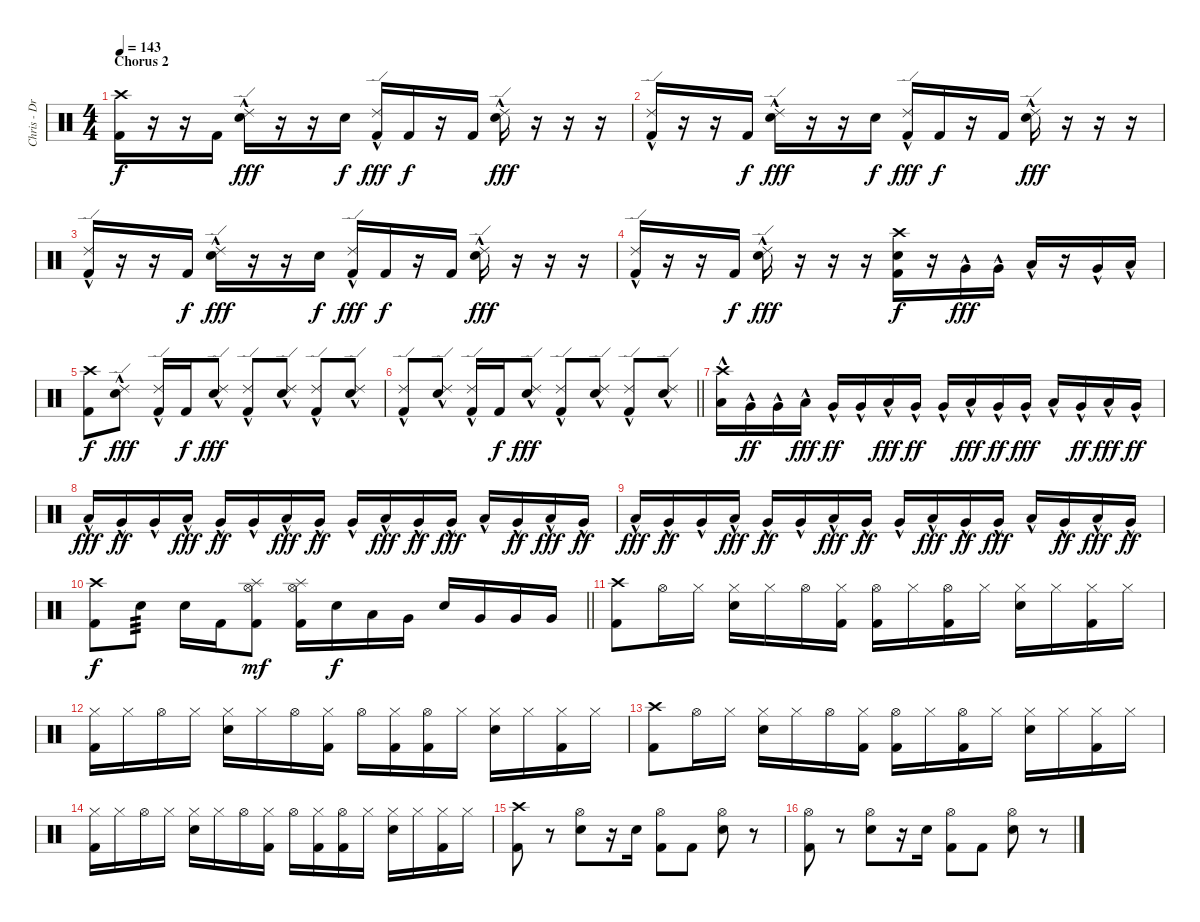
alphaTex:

\track ("Chris - Drums" "Chris - Dr") {instrument percussion}
\staff {score}
\articulation defaults
\ts (4 4)
\section ("" "Chorus 2")
\tempo 143
\clef neutral
\ks c
("Crash high (hit)" "Kick (hit) 2").16{dy f} r.16 r.16 "Kick (hit) 2".16 ("Ride (edge) 2"{hac} "Electric Snare (hit)").16{dy fff} r.16 r.16 "Electric Snare (hit)".16{dy f} ("Ride (edge) 2"{hac} "Kick (hit) 2").16{dy fff} "Kick (hit) 2".16{dy f} r.16 "Kick (hit) 2".16 ("Ride (edge) 2"{hac} "Electric Snare (hit)").16{dy fff} r.16 r.16 r.16 |
("Ride (edge) 2"{hac} "Kick (hit) 2").16 r.16 r.16 "Kick (hit) 2".16{dy f} ("Ride (edge) 2"{hac} "Electric Snare (hit)").16{dy fff} r.16 r.16 "Electric Snare (hit)".16{dy f} ("Ride (edge) 2"{hac} "Kick (hit) 2").16{dy fff} "Kick (hit) 2".16{dy f} r.16 "Kick (hit) 2".16 ("Ride (edge) 2"{hac} "Electric Snare (hit)").16{dy fff} r.16 r.16 r.16 |
("Ride (edge) 2"{hac} "Kick (hit) 2").16 r.16 r.16 "Kick (hit) 2".16{dy f} ("Ride (edge) 2"{hac} "Electric Snare (hit)").16{dy fff} r.16 r.16 "Electric Snare (hit)".16{dy f} ("Ride (edge) 2"{hac} "Kick (hit) 2").16{dy fff} "Kick (hit) 2".16{dy f} r.16 "Kick (hit) 2".16 ("Ride (edge) 2"{hac} "Electric Snare (hit)").16{dy fff} r.16 r.16 r.16 |
("Ride (edge) 2"{hac} "Kick (hit) 2").16 r.16 r.16 "Kick (hit) 2".16{dy f} ("Ride (edge) 2"{hac} "Electric Snare (hit)").16{dy fff} r.16 r.16 r.16 ("Crash high (hit)" "Electric Snare (hit)" "Kick (hit) 2").16{dy f} r.16 "Very Low Tom (hit)"{hac}.16{dy fff} "Very Low Tom (hit)"{hac}.16 "Low Tom (hit)"{hac}.16 r.16 "Very Low Tom (hit)"{hac}.16 "Low Floor Tom (hit)"{hac}.16 |
("Crash high (hit)" "Kick (hit) 2").8{dy f} ("Ride (edge) 2"{hac} "Electric Snare (hit)").8{dy fff} ("Ride (edge) 2"{hac} "Kick (hit) 2").16 "Kick (hit) 2".16{dy f} ("Ride (edge) 2"{hac} "Electric Snare (hit)").8{dy fff} ("Ride (edge) 2"{hac} "Kick (hit) 2").8 ("Ride (edge) 2"{hac} "Electric Snare (hit)").8 ("Ride (edge) 2"{hac} "Kick (hit) 2").8 ("Ride (edge) 2"{hac} "Electric Snare (hit)").8 |
\barLineRight lightlight
("Ride (edge) 2"{hac} "Kick (hit) 2").8 ("Ride (edge) 2"{hac} "Electric Snare (hit)").8 ("Ride (edge) 2"{hac} "Kick (hit) 2").16 "Kick (hit) 2".16{dy f} ("Ride (edge) 2"{hac} "Electric Snare (hit)").8{dy fff} ("Ride (edge) 2"{hac} "Kick (hit) 2").8 ("Ride (edge) 2"{hac} "Electric Snare (hit)").8 ("Ride (edge) 2"{hac} "Kick (hit) 2").8 ("Ride (edge) 2"{hac} "Electric Snare (hit)").8 |
("Crash high (hit)"{hac} "Low Tom (hit)"{hac}).16 "Very Low Tom (hit)"{hac}.16{dy ff} "Very Low Tom (hit)"{hac}.16 "Low Tom (hit)"{hac}.16{dy fff} "Very Low Tom (hit)"{hac}.16{dy ff} "Very Low Tom (hit)"{hac}.16 "Low Tom (hit)"{hac}.16{dy fff} "Very Low Tom (hit)"{hac}.16{dy ff} "Very Low Tom (hit)"{hac}.16 "Low Tom (hit)"{hac}.16{dy fff} "Very Low Tom (hit)"{hac}.16{dy ff} "Very Low Tom (hit)"{hac}.16{dy fff} "Low Tom (hit)"{hac}.16 "Very Low Tom (hit)"{hac}.16{dy ff} "Low Tom (hit)"{hac}.16{dy fff} "Very Low Tom (hit)"{hac}.16{dy ff} |
"Low Tom (hit)"{hac}.16{dy fff} "Very Low Tom (hit)"{hac}.16{dy ff} "Very Low Tom (hit)"{hac}.16 "Low Tom (hit)"{hac}.16{dy fff} "Very Low Tom (hit)"{hac}.16{dy ff} "Very Low Tom (hit)"{hac}.16 "Low Tom (hit)"{hac}.16{dy fff} "Very Low Tom (hit)"{hac}.16{dy ff} "Very Low Tom (hit)"{hac}.16 "Low Tom (hit)"{hac}.16{dy fff} "Very Low Tom (hit)"{hac}.16{dy ff} "Very Low Tom (hit)"{hac}.16{dy fff} "Low Tom (hit)"{hac}.16 "Very Low Tom (hit)"{hac}.16{dy ff} "Low Tom (hit)"{hac}.16{dy fff} "Very Low Tom (hit)"{hac}.16{dy ff} |
"Low Tom (hit)"{hac}.16{dy fff} "Very Low Tom (hit)"{hac}.16{dy ff} "Very Low Tom (hit)"{hac}.16 "Low Tom (hit)"{hac}.16{dy fff} "Very Low Tom (hit)"{hac}.16{dy ff} "Very Low Tom (hit)"{hac}.16 "Low Tom (hit)"{hac}.16{dy fff} "Very Low Tom (hit)"{hac}.16{dy ff} "Very Low Tom (hit)"{hac}.16 "Low Tom (hit)"{hac}.16{dy fff} "Very Low Tom (hit)"{hac}.16{dy ff} "Very Low Tom (hit)"{hac}.16{dy fff} "Low Tom (hit)"{hac}.16 "Very Low Tom (hit)"{hac}.16{dy ff} "Low Tom (hit)"{hac}.16{dy fff} "Very Low Tom (hit)"{hac}.16{dy ff} |
\barLineRight lightlight
("Crash high (hit)" "Kick (hit) 2").8{dy f} "Electric Snare (hit)".8{tp 3} "Electric Snare (hit)".16 "Kick (hit) 2".16 ("Hi-Hat (open)" "Splash (hit)" "Kick (hit) 2").8{dy mf} ("Hi-Hat (open)" "Splash (hit)" "Kick (hit) 2").16 "Electric Snare (hit)".16{dy f} "Low Tom (hit)".16 "Very Low Tom (hit)".16 "Electric Snare (hit)".16 "Very Low Tom (hit)".16 "Very Low Tom (hit)".16 "Very Low Tom (hit)".16 |
("Crash high (hit)" "Kick (hit) 2").8 "Hi-Hat (open)".16 "Hi-Hat (closed)".16 ("Hi-Hat (closed)" "Electric Snare (hit)").16 "Hi-Hat (closed)".16 "Hi-Hat (open)".16 ("Hi-Hat (closed)" "Kick (hit) 2").16 ("Hi-Hat (open)" "Kick (hit) 2").16 "Hi-Hat (closed)".16 ("Hi-Hat (open)" "Kick (hit) 2").16 "Hi-Hat (closed)".16 ("Hi-Hat (closed)" "Electric Snare (hit)").16 "Hi-Hat (closed)".16 ("Hi-Hat (closed)" "Kick (hit) 2").16 "Hi-Hat (closed)".16 |
("Hi-Hat (closed)" "Kick (hit) 2").16 "Hi-Hat (closed)".16 "Hi-Hat (open)".16 "Hi-Hat (closed)".16 ("Hi-Hat (closed)" "Electric Snare (hit)").16 "Hi-Hat (closed)".16 "Hi-Hat (open)".16 ("Hi-Hat (closed)" "Kick (hit) 2").16 "Hi-Hat (open)".16 ("Hi-Hat (closed)" "Kick (hit) 2").16 ("Hi-Hat (open)" "Kick (hit) 2").16 "Hi-Hat (closed)".16 ("Hi-Hat (closed)" "Electric Snare (hit)").16 "Hi-Hat (closed)".16 ("Hi-Hat (closed)" "Kick (hit) 2").16 "Hi-Hat (closed)".16 |
("Crash high (hit)" "Kick (hit) 2").8 "Hi-Hat (open)".16 "Hi-Hat (closed)".16 ("Hi-Hat (closed)" "Electric Snare (hit)").16 "Hi-Hat (closed)".16 "Hi-Hat (open)".16 ("Hi-Hat (closed)" "Kick (hit) 2").16 ("Hi-Hat (open)" "Kick (hit) 2").16 "Hi-Hat (closed)".16 ("Hi-Hat (open)" "Kick (hit) 2").16 "Hi-Hat (closed)".16 ("Hi-Hat (closed)" "Electric Snare (hit)").16 "Hi-Hat (closed)".16 ("Hi-Hat (closed)" "Kick (hit) 2").16 "Hi-Hat (closed)".16 |
("Hi-Hat (closed)" "Kick (hit) 2").16 "Hi-Hat (closed)".16 "Hi-Hat (open)".16 "Hi-Hat (closed)".16 ("Hi-Hat (closed)" "Electric Snare (hit)").16 "Hi-Hat (closed)".16 "Hi-Hat (open)".16 ("Hi-Hat (closed)" "Kick (hit) 2").16 "Hi-Hat (open)".16 ("Hi-Hat (closed)" "Kick (hit) 2").16 ("Hi-Hat (open)" "Kick (hit) 2").16 "Hi-Hat (closed)".16 ("Hi-Hat (closed)" "Electric Snare (hit)").16 "Hi-Hat (closed)".16 ("Hi-Hat (closed)" "Kick (hit) 2").16 "Hi-Hat (closed)".16 |
("Crash high (hit)" "Kick (hit) 2").8 r.8 ("Hi-Hat (open)" "Electric Snare (hit)").8 r.16 "Electric Snare (hit)".16 ("Hi-Hat (open)" "Kick (hit) 2").8 "Kick (hit) 2".8 ("Hi-Hat (open)" "Electric Snare (hit)").8 r.8 |
("Hi-Hat (open)" "Kick (hit) 2").8 r.8 ("Hi-Hat (open)" "Electric Snare (hit)").8 r.16 "Electric Snare (hit)".16 ("Hi-Hat (open)" "Kick (hit) 2").8 "Kick (hit) 2".8 ("Hi-Hat (open)" "Electric Snare (hit)").8 r.8
